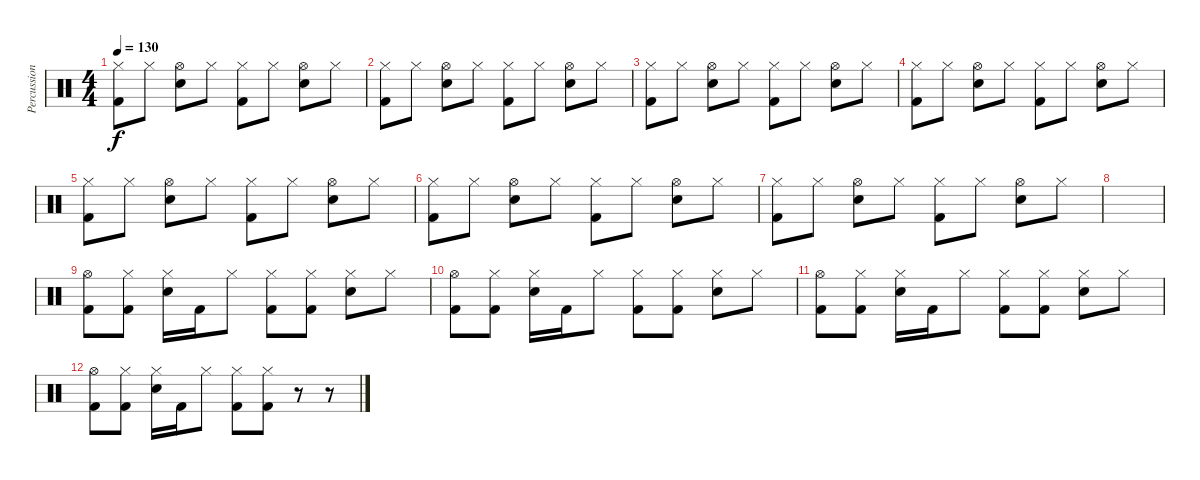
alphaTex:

\track ("Percussion" "Percussion") {instrument percussion}
\staff {score}
\articulation defaults
\ts (4 4)
\tempo 130
\clef neutral
\ks c
("Hi-Hat (closed)" "Kick (hit) 2").8{dy f} "Hi-Hat (closed)".8 ("Hi-Hat (open)" "Electric Snare (hit)").8 "Hi-Hat (closed)".8 ("Hi-Hat (closed)" "Kick (hit) 2").8 "Hi-Hat (closed)".8 ("Hi-Hat (open)" "Electric Snare (hit)").8 "Hi-Hat (closed)".8 |
("Hi-Hat (closed)" "Kick (hit) 2").8 "Hi-Hat (closed)".8 ("Hi-Hat (open)" "Electric Snare (hit)").8 "Hi-Hat (closed)".8 ("Hi-Hat (closed)" "Kick (hit) 2").8 "Hi-Hat (closed)".8 ("Hi-Hat (open)" "Electric Snare (hit)").8 "Hi-Hat (closed)".8 |
("Hi-Hat (closed)" "Kick (hit) 2").8 "Hi-Hat (closed)".8 ("Hi-Hat (open)" "Electric Snare (hit)").8 "Hi-Hat (closed)".8 ("Hi-Hat (closed)" "Kick (hit) 2").8 "Hi-Hat (closed)".8 ("Hi-Hat (open)" "Electric Snare (hit)").8 "Hi-Hat (closed)".8 |
("Hi-Hat (closed)" "Kick (hit) 2").8 "Hi-Hat (closed)".8 ("Hi-Hat (open)" "Electric Snare (hit)").8 "Hi-Hat (closed)".8 ("Hi-Hat (closed)" "Kick (hit) 2").8 "Hi-Hat (closed)".8 ("Hi-Hat (open)" "Electric Snare (hit)").8 "Hi-Hat (closed)".8 |
("Hi-Hat (closed)" "Kick (hit) 2").8 "Hi-Hat (closed)".8 ("Hi-Hat (open)" "Electric Snare (hit)").8 "Hi-Hat (closed)".8 ("Hi-Hat (closed)" "Kick (hit) 2").8 "Hi-Hat (closed)".8 ("Hi-Hat (open)" "Electric Snare (hit)").8 "Hi-Hat (closed)".8 |
("Hi-Hat (closed)" "Kick (hit) 2").8 "Hi-Hat (closed)".8 ("Hi-Hat (open)" "Electric Snare (hit)").8 "Hi-Hat (closed)".8 ("Hi-Hat (closed)" "Kick (hit) 2").8 "Hi-Hat (closed)".8 ("Hi-Hat (open)" "Electric Snare (hit)").8 "Hi-Hat (closed)".8 |
("Hi-Hat (closed)" "Kick (hit) 2").8 "Hi-Hat (closed)".8 ("Hi-Hat (open)" "Electric Snare (hit)").8 "Hi-Hat (closed)".8 ("Hi-Hat (closed)" "Kick (hit) 2").8 "Hi-Hat (closed)".8 ("Hi-Hat (open)" "Electric Snare (hit)").8 "Hi-Hat (closed)".8 |
|
("Hi-Hat (open)" "Kick (hit) 2").8 ("Hi-Hat (closed)" "Kick (hit) 2").8 ("Hi-Hat (closed)" "Electric Snare (hit)").16 "Kick (hit) 2".16 "Hi-Hat (closed)".8 ("Hi-Hat (closed)" "Kick (hit) 2").8 ("Hi-Hat (closed)" "Kick (hit) 2").8 ("Hi-Hat (closed)" "Electric Snare (hit)").8 "Hi-Hat (closed)".8 |
("Hi-Hat (open)" "Kick (hit) 2").8 ("Hi-Hat (closed)" "Kick (hit) 2").8 ("Hi-Hat (closed)" "Electric Snare (hit)").16 "Kick (hit) 2".16 "Hi-Hat (closed)".8 ("Hi-Hat (closed)" "Kick (hit) 2").8 ("Hi-Hat (closed)" "Kick (hit) 2").8 ("Hi-Hat (closed)" "Electric Snare (hit)").8 "Hi-Hat (closed)".8 |
("Hi-Hat (open)" "Kick (hit) 2").8 ("Hi-Hat (closed)" "Kick (hit) 2").8 ("Hi-Hat (closed)" "Electric Snare (hit)").16 "Kick (hit) 2".16 "Hi-Hat (closed)".8 ("Hi-Hat (closed)" "Kick (hit) 2").8 ("Hi-Hat (closed)" "Kick (hit) 2").8 ("Hi-Hat (closed)" "Electric Snare (hit)").8 "Hi-Hat (closed)".8 |
("Hi-Hat (open)" "Kick (hit) 2").8 ("Hi-Hat (closed)" "Kick (hit) 2").8 ("Hi-Hat (closed)" "Electric Snare (hit)").16 "Kick (hit) 2".16 "Hi-Hat (closed)".8 ("Hi-Hat (closed)" "Kick (hit) 2").8 ("Hi-Hat (closed)" "Kick (hit) 2").8 r.8 r.8
